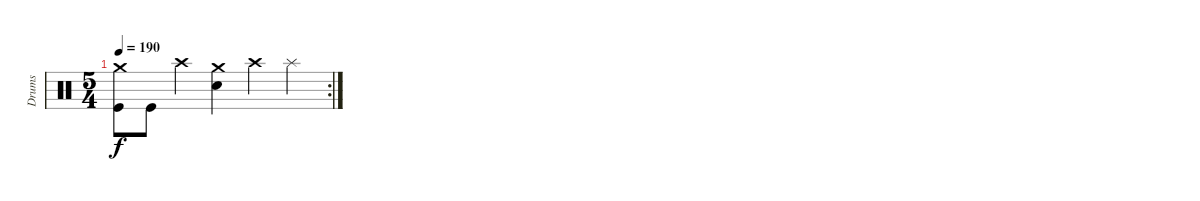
\track ("Drums" "Drums") {instrument percussion}
\staff {score}
\articulation defaults
\rc 2
\ts (5 4)
\tempo 190
\clef neutral
\ks c
("Crash medium (hit)" "Kick (hit)").8{dy f} "Kick (hit)".8 "Crash high (hit)".4 ("Crash medium (hit)" "Snare (hit) 2").4 "Crash high (hit)".4 "Splash (hit)".4
